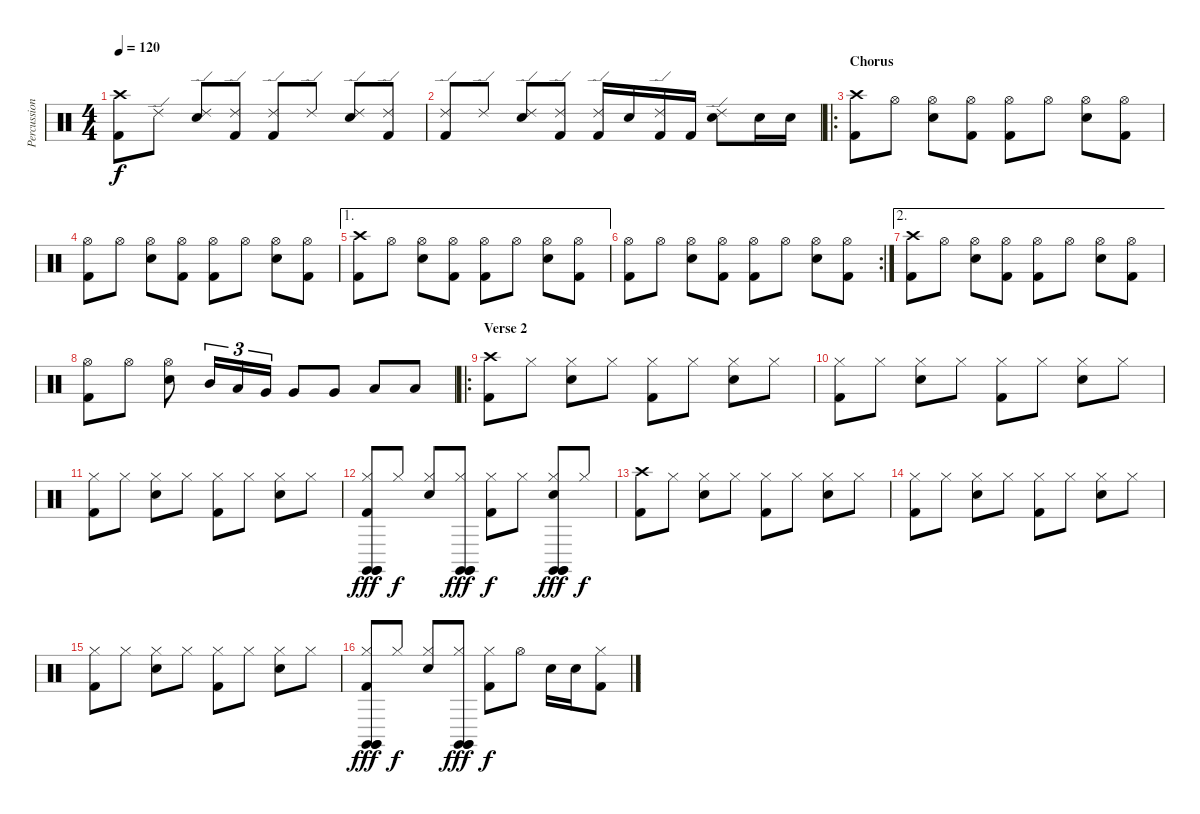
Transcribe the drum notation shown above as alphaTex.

\track ("Percussion" "Percussion") {instrument percussion}
\staff {score}
\articulation defaults
\ts (4 4)
\tempo 120
\clef neutral
\ks c
("Crash high (hit)" "Kick (hit) 2").8{dy f} "Ride (edge) 2".8 ("Ride (edge) 2" "Snare (hit) 2").8 ("Ride (edge) 2" "Kick (hit) 2").8 ("Ride (edge) 2" "Kick (hit) 2").8 "Ride (edge) 2".8 ("Ride (edge) 2" "Snare (hit) 2").8 ("Ride (edge) 2" "Kick (hit) 2").8 |
("Ride (edge) 2" "Kick (hit) 2").8 "Ride (edge) 2".8 ("Ride (edge) 2" "Snare (hit) 2").8 ("Ride (edge) 2" "Kick (hit) 2").8 ("Ride (edge) 2" "Kick (hit) 2").16 "Snare (hit) 2".16 ("Ride (edge) 2" "Kick (hit) 2").16 "Kick (hit) 2".16 ("Ride (edge) 2" "Snare (hit) 2").8 "Snare (hit) 2".16 "Snare (hit) 2".16 |
\ro
\section ("" "Chorus")
("Crash high (hit)" "Kick (hit) 2").8 "Hi-Hat (open)".8 ("Hi-Hat (open)" "Snare (hit) 2").8 ("Hi-Hat (open)" "Kick (hit) 2").8 ("Hi-Hat (open)" "Kick (hit) 2").8 "Hi-Hat (open)".8 ("Hi-Hat (open)" "Snare (hit) 2").8 ("Hi-Hat (open)" "Kick (hit) 2").8 |
("Hi-Hat (open)" "Kick (hit) 2").8 "Hi-Hat (open)".8 ("Hi-Hat (open)" "Snare (hit) 2").8 ("Hi-Hat (open)" "Kick (hit) 2").8 ("Hi-Hat (open)" "Kick (hit) 2").8 "Hi-Hat (open)".8 ("Hi-Hat (open)" "Snare (hit) 2").8 ("Hi-Hat (open)" "Kick (hit) 2").8 |
\ae 1
("Crash high (hit)" "Kick (hit) 2").8 "Hi-Hat (open)".8 ("Hi-Hat (open)" "Snare (hit) 2").8 ("Hi-Hat (open)" "Kick (hit) 2").8 ("Hi-Hat (open)" "Kick (hit) 2").8 "Hi-Hat (open)".8 ("Hi-Hat (open)" "Snare (hit) 2").8 ("Hi-Hat (open)" "Kick (hit) 2").8 |
\rc 2
("Hi-Hat (open)" "Kick (hit) 2").8 "Hi-Hat (open)".8 ("Hi-Hat (open)" "Snare (hit) 2").8 ("Hi-Hat (open)" "Kick (hit) 2").8 ("Hi-Hat (open)" "Kick (hit) 2").8 "Hi-Hat (open)".8 ("Hi-Hat (open)" "Snare (hit) 2").8 ("Hi-Hat (open)" "Kick (hit) 2").8 |
\ae 2
("Crash high (hit)" "Kick (hit) 2").8 "Hi-Hat (open)".8 ("Hi-Hat (open)" "Snare (hit) 2").8 ("Hi-Hat (open)" "Kick (hit) 2").8 ("Hi-Hat (open)" "Kick (hit) 2").8 "Hi-Hat (open)".8 ("Hi-Hat (open)" "Snare (hit) 2").8 ("Hi-Hat (open)" "Kick (hit) 2").8 |
("Hi-Hat (open)" "Kick (hit) 2").8 "Hi-Hat (open)".8 ("Hi-Hat (open)" "Snare (hit) 2").8 "Mid Tom (hit)".16{tu (3 2)} "Low Tom (hit)".16{tu (3 2)} "Very Low Tom (hit)".16{tu (3 2)} "Very Low Tom (hit)".8 "Very Low Tom (hit)".8 "Low Floor Tom (hit)".8 "Low Floor Tom (hit)".8 |
\ro
\section ("" "Verse 2")
("Crash high (hit)" "Kick (hit) 2").8 "Hi-Hat (closed)".8 ("Hi-Hat (closed)" "Snare (hit) 2").8 "Hi-Hat (closed)".8 ("Hi-Hat (closed)" "Kick (hit) 2").8 "Hi-Hat (closed)".8 ("Hi-Hat (closed)" "Snare (hit) 2").8 "Hi-Hat (closed)".8 |
("Hi-Hat (closed)" "Kick (hit) 2").8 "Hi-Hat (closed)".8 ("Hi-Hat (closed)" "Snare (hit) 2").8 "Hi-Hat (closed)".8 ("Hi-Hat (closed)" "Kick (hit) 2").8 "Hi-Hat (closed)".8 ("Hi-Hat (closed)" "Snare (hit) 2").8 "Hi-Hat (closed)".8 |
("Hi-Hat (closed)" "Kick (hit) 2").8 "Hi-Hat (closed)".8 ("Hi-Hat (closed)" "Snare (hit) 2").8 "Hi-Hat (closed)".8 ("Hi-Hat (closed)" "Kick (hit) 2").8 "Hi-Hat (closed)".8 ("Hi-Hat (closed)" "Snare (hit) 2").8 "Hi-Hat (closed)".8 |
("Hi-Hat (closed)" "Claves (hit)" "Claves (hit)" "Claves (hit)" "Kick (hit) 2").8{dy fff} "Hi-Hat (closed)".8{dy f} ("Hi-Hat (closed)" "Snare (hit) 2").8 ("Hi-Hat (closed)" "Claves (hit)" "Claves (hit)" "Claves (hit)").8{dy fff} ("Hi-Hat (closed)" "Kick (hit) 2").8{dy f} "Hi-Hat (closed)".8 ("Hi-Hat (closed)" "Claves (hit)" "Claves (hit)" "Claves (hit)" "Snare (hit) 2").8{dy fff} "Hi-Hat (closed)".8{dy f} |
("Crash high (hit)" "Kick (hit) 2").8 "Hi-Hat (closed)".8 ("Hi-Hat (closed)" "Snare (hit) 2").8 "Hi-Hat (closed)".8 ("Hi-Hat (closed)" "Kick (hit) 2").8 "Hi-Hat (closed)".8 ("Hi-Hat (closed)" "Snare (hit) 2").8 "Hi-Hat (closed)".8 |
("Hi-Hat (closed)" "Kick (hit) 2").8 "Hi-Hat (closed)".8 ("Hi-Hat (closed)" "Snare (hit) 2").8 "Hi-Hat (closed)".8 ("Hi-Hat (closed)" "Kick (hit) 2").8 "Hi-Hat (closed)".8 ("Hi-Hat (closed)" "Snare (hit) 2").8 "Hi-Hat (closed)".8 |
("Hi-Hat (closed)" "Kick (hit) 2").8 "Hi-Hat (closed)".8 ("Hi-Hat (closed)" "Snare (hit) 2").8 "Hi-Hat (closed)".8 ("Hi-Hat (closed)" "Kick (hit) 2").8 "Hi-Hat (closed)".8 ("Hi-Hat (closed)" "Snare (hit) 2").8 "Hi-Hat (closed)".8 |
("Hi-Hat (closed)" "Claves (hit)" "Claves (hit)" "Claves (hit)" "Kick (hit) 2").8{dy fff} "Hi-Hat (closed)".8{dy f} ("Hi-Hat (closed)" "Snare (hit) 2").8 ("Hi-Hat (closed)" "Claves (hit)" "Claves (hit)" "Claves (hit)").8{dy fff} ("Hi-Hat (closed)" "Kick (hit) 2").8{dy f} "Hi-Hat (open)".8 "Snare (hit) 2".16 "Snare (hit) 2".16 ("Hi-Hat (closed)" "Kick (hit) 2").8
